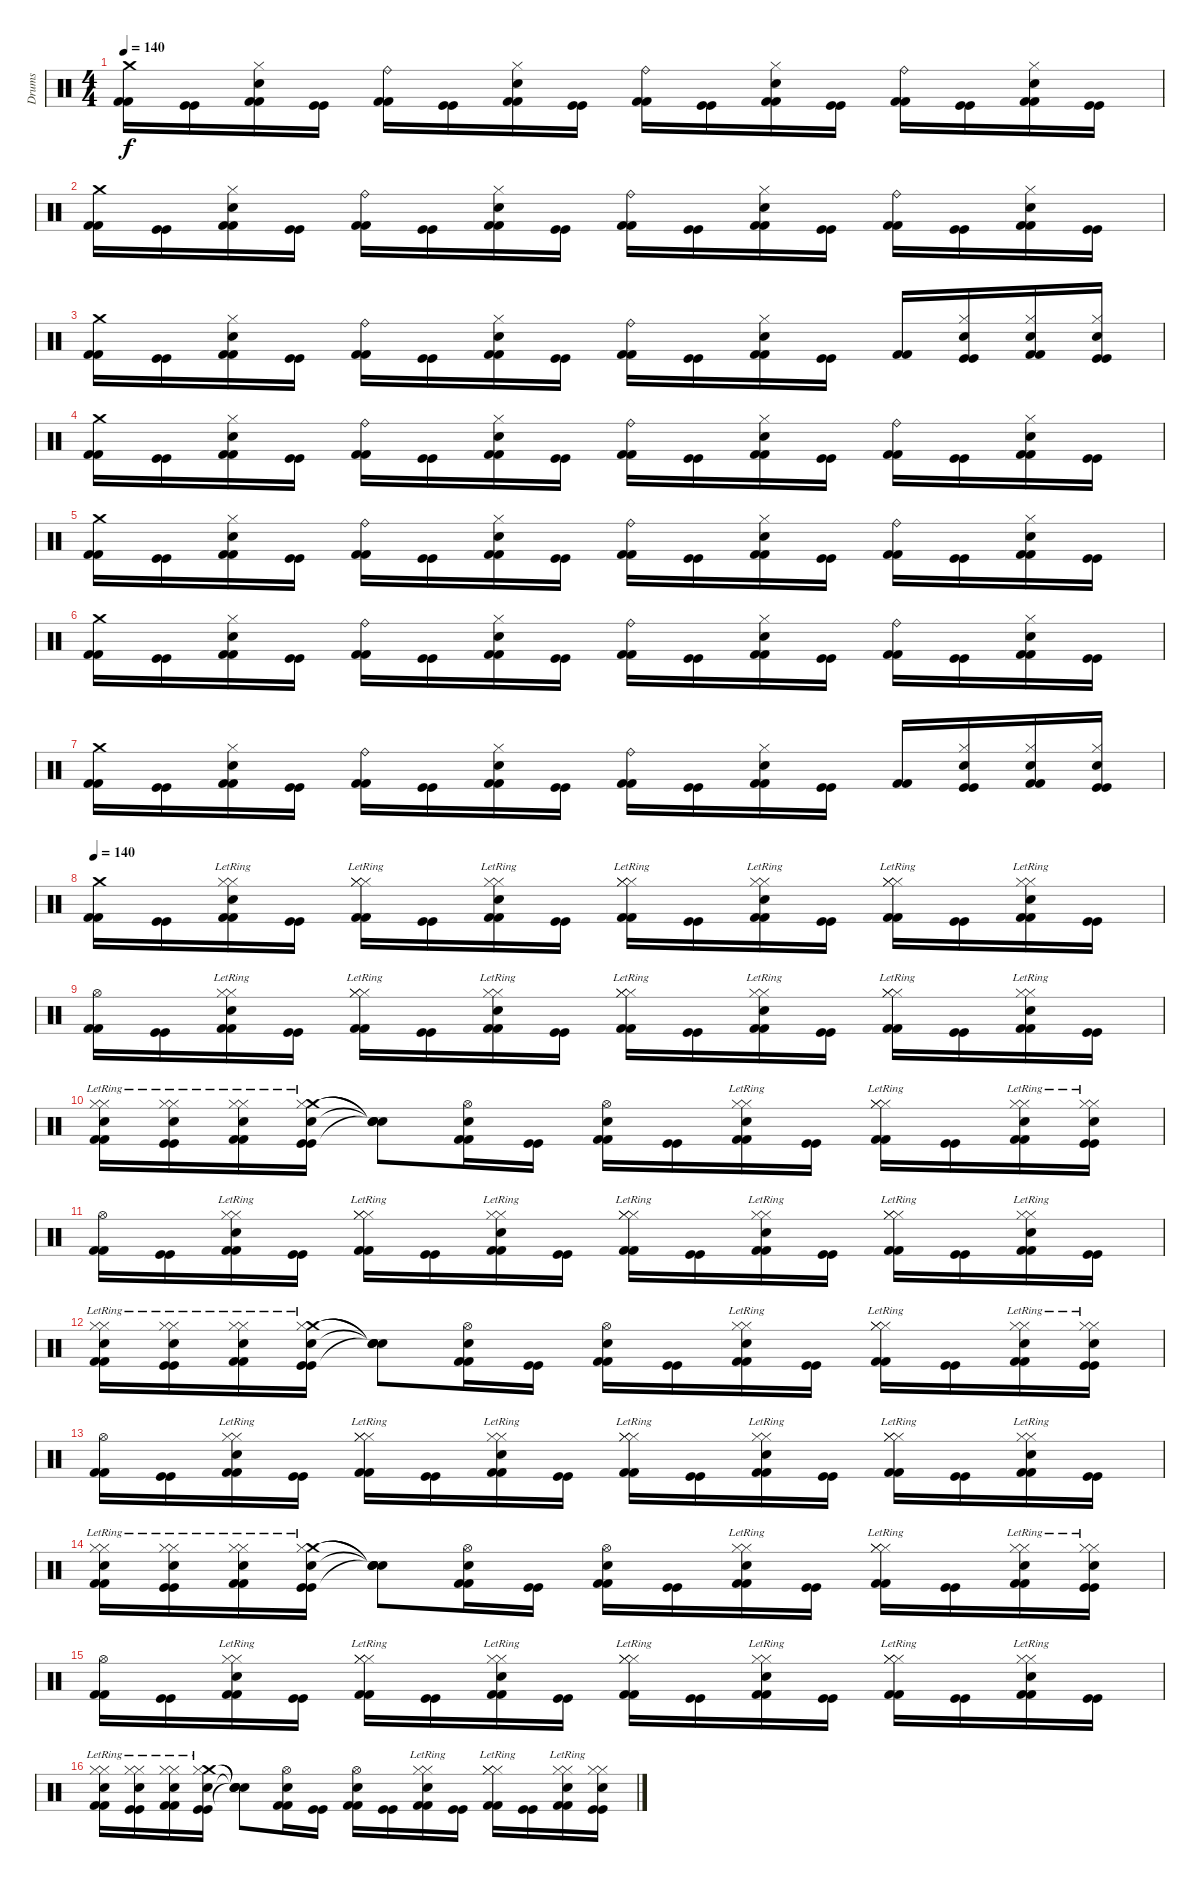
\track ("Drums" "Drums") {instrument percussion}
\staff {score}
\articulation defaults
\ts (4 4)
\tempo 140
\clef neutral
\ks c
("Crash medium (hit)" "Kick (hit) 2" "Kick (hit) 2").16{dy f} ("Kick (hit)" "Kick (hit)").16 ("Hi-Hat (closed)" "Snare (hit) 2" "Kick (hit) 2" "Kick (hit) 2").16 ("Kick (hit)" "Kick (hit)").16 ("Ride (bell)" "Kick (hit) 2" "Kick (hit) 2").16 ("Kick (hit)" "Kick (hit)").16 ("Hi-Hat (closed)" "Snare (hit) 2" "Kick (hit) 2" "Kick (hit) 2").16 ("Kick (hit)" "Kick (hit)").16 ("Ride (bell)" "Kick (hit) 2" "Kick (hit) 2").16 ("Kick (hit)" "Kick (hit)").16 ("Hi-Hat (closed)" "Snare (hit) 2" "Kick (hit) 2" "Kick (hit) 2").16 ("Kick (hit)" "Kick (hit)").16 ("Ride (bell)" "Kick (hit) 2" "Kick (hit) 2").16 ("Kick (hit)" "Kick (hit)").16 ("Hi-Hat (closed)" "Snare (hit) 2" "Kick (hit) 2" "Kick (hit) 2").16 ("Kick (hit)" "Kick (hit)").16 |
("Crash medium (hit)" "Kick (hit) 2" "Kick (hit) 2").16 ("Kick (hit)" "Kick (hit)").16 ("Hi-Hat (closed)" "Snare (hit) 2" "Kick (hit) 2" "Kick (hit) 2").16 ("Kick (hit)" "Kick (hit)").16 ("Ride (bell)" "Kick (hit) 2" "Kick (hit) 2").16 ("Kick (hit)" "Kick (hit)").16 ("Hi-Hat (closed)" "Snare (hit) 2" "Kick (hit) 2" "Kick (hit) 2").16 ("Kick (hit)" "Kick (hit)").16 ("Ride (bell)" "Kick (hit) 2" "Kick (hit) 2").16 ("Kick (hit)" "Kick (hit)").16 ("Hi-Hat (closed)" "Snare (hit) 2" "Kick (hit) 2" "Kick (hit) 2").16 ("Kick (hit)" "Kick (hit)").16 ("Ride (bell)" "Kick (hit) 2" "Kick (hit) 2").16 ("Kick (hit)" "Kick (hit)").16 ("Hi-Hat (closed)" "Snare (hit) 2" "Kick (hit) 2" "Kick (hit) 2").16 ("Kick (hit)" "Kick (hit)").16 |
("Crash medium (hit)" "Kick (hit) 2" "Kick (hit) 2").16 ("Kick (hit)" "Kick (hit)").16 ("Hi-Hat (closed)" "Snare (hit) 2" "Kick (hit) 2" "Kick (hit) 2").16 ("Kick (hit)" "Kick (hit)").16 ("Ride (bell)" "Kick (hit) 2" "Kick (hit) 2").16 ("Kick (hit)" "Kick (hit)").16 ("Hi-Hat (closed)" "Snare (hit) 2" "Kick (hit) 2" "Kick (hit) 2").16 ("Kick (hit)" "Kick (hit)").16 ("Ride (bell)" "Kick (hit) 2" "Kick (hit) 2").16 ("Kick (hit)" "Kick (hit)").16 ("Hi-Hat (closed)" "Snare (hit) 2" "Kick (hit) 2" "Kick (hit) 2").16 ("Kick (hit)" "Kick (hit)").16 ("Kick (hit) 2" "Kick (hit) 2").16 ("Hi-Hat (closed)" "Snare (hit) 2" "Kick (hit)" "Kick (hit)").16 ("Hi-Hat (closed)" "Snare (hit) 2" "Kick (hit) 2" "Kick (hit) 2").16 ("Hi-Hat (closed)" "Snare (hit) 2" "Kick (hit)" "Kick (hit)").16 |
("Crash medium (hit)" "Kick (hit) 2" "Kick (hit) 2").16 ("Kick (hit)" "Kick (hit)").16 ("Hi-Hat (closed)" "Snare (hit) 2" "Kick (hit) 2" "Kick (hit) 2").16 ("Kick (hit)" "Kick (hit)").16 ("Ride (bell)" "Kick (hit) 2" "Kick (hit) 2").16 ("Kick (hit)" "Kick (hit)").16 ("Hi-Hat (closed)" "Snare (hit) 2" "Kick (hit) 2" "Kick (hit) 2").16 ("Kick (hit)" "Kick (hit)").16 ("Ride (bell)" "Kick (hit) 2" "Kick (hit) 2").16 ("Kick (hit)" "Kick (hit)").16 ("Hi-Hat (closed)" "Snare (hit) 2" "Kick (hit) 2" "Kick (hit) 2").16 ("Kick (hit)" "Kick (hit)").16 ("Ride (bell)" "Kick (hit) 2" "Kick (hit) 2").16 ("Kick (hit)" "Kick (hit)").16 ("Hi-Hat (closed)" "Snare (hit) 2" "Kick (hit) 2" "Kick (hit) 2").16 ("Kick (hit)" "Kick (hit)").16 |
("Crash medium (hit)" "Kick (hit) 2" "Kick (hit) 2").16 ("Kick (hit)" "Kick (hit)").16 ("Hi-Hat (closed)" "Snare (hit) 2" "Kick (hit) 2" "Kick (hit) 2").16 ("Kick (hit)" "Kick (hit)").16 ("Ride (bell)" "Kick (hit) 2" "Kick (hit) 2").16 ("Kick (hit)" "Kick (hit)").16 ("Hi-Hat (closed)" "Snare (hit) 2" "Kick (hit) 2" "Kick (hit) 2").16 ("Kick (hit)" "Kick (hit)").16 ("Ride (bell)" "Kick (hit) 2" "Kick (hit) 2").16 ("Kick (hit)" "Kick (hit)").16 ("Hi-Hat (closed)" "Snare (hit) 2" "Kick (hit) 2" "Kick (hit) 2").16 ("Kick (hit)" "Kick (hit)").16 ("Ride (bell)" "Kick (hit) 2" "Kick (hit) 2").16 ("Kick (hit)" "Kick (hit)").16 ("Hi-Hat (closed)" "Snare (hit) 2" "Kick (hit) 2" "Kick (hit) 2").16 ("Kick (hit)" "Kick (hit)").16 |
("Crash medium (hit)" "Kick (hit) 2" "Kick (hit) 2").16 ("Kick (hit)" "Kick (hit)").16 ("Hi-Hat (closed)" "Snare (hit) 2" "Kick (hit) 2" "Kick (hit) 2").16 ("Kick (hit)" "Kick (hit)").16 ("Ride (bell)" "Kick (hit) 2" "Kick (hit) 2").16 ("Kick (hit)" "Kick (hit)").16 ("Hi-Hat (closed)" "Snare (hit) 2" "Kick (hit) 2" "Kick (hit) 2").16 ("Kick (hit)" "Kick (hit)").16 ("Ride (bell)" "Kick (hit) 2" "Kick (hit) 2").16 ("Kick (hit)" "Kick (hit)").16 ("Hi-Hat (closed)" "Snare (hit) 2" "Kick (hit) 2" "Kick (hit) 2").16 ("Kick (hit)" "Kick (hit)").16 ("Ride (bell)" "Kick (hit) 2" "Kick (hit) 2").16 ("Kick (hit)" "Kick (hit)").16 ("Hi-Hat (closed)" "Snare (hit) 2" "Kick (hit) 2" "Kick (hit) 2").16 ("Kick (hit)" "Kick (hit)").16 |
("Crash medium (hit)" "Kick (hit) 2" "Kick (hit) 2").16 ("Kick (hit)" "Kick (hit)").16 ("Hi-Hat (closed)" "Snare (hit) 2" "Kick (hit) 2" "Kick (hit) 2").16 ("Kick (hit)" "Kick (hit)").16 ("Ride (bell)" "Kick (hit) 2" "Kick (hit) 2").16 ("Kick (hit)" "Kick (hit)").16 ("Hi-Hat (closed)" "Snare (hit) 2" "Kick (hit) 2" "Kick (hit) 2").16 ("Kick (hit)" "Kick (hit)").16 ("Ride (bell)" "Kick (hit) 2" "Kick (hit) 2").16 ("Kick (hit)" "Kick (hit)").16 ("Hi-Hat (closed)" "Snare (hit) 2" "Kick (hit) 2" "Kick (hit) 2").16 ("Kick (hit)" "Kick (hit)").16 ("Kick (hit) 2" "Kick (hit) 2").16 ("Hi-Hat (closed)" "Snare (hit) 2" "Kick (hit)" "Kick (hit)").16 ("Hi-Hat (closed)" "Snare (hit) 2" "Kick (hit) 2" "Kick (hit) 2").16 ("Hi-Hat (closed)" "Snare (hit) 2" "Kick (hit)" "Kick (hit)").16 |
\tempo 140
("Crash medium (hit)" "Kick (hit) 2" "Kick (hit) 2").16 ("Kick (hit)" "Kick (hit)").16 ("Hi-Hat (closed)"{lr} "Hi-Hat (closed)"{lr} "Snare (hit) 2" "Kick (hit) 2" "Kick (hit) 2").16 ("Kick (hit)" "Kick (hit)").16 ("Hi-Hat (closed)"{lr} "Hi-Hat (closed)"{lr} "Hi-Hat (closed)"{lr} "Kick (hit) 2" "Kick (hit) 2").16 ("Kick (hit)" "Kick (hit)").16 ("Hi-Hat (closed)"{lr} "Hi-Hat (closed)"{lr} "Snare (hit) 2" "Kick (hit) 2" "Kick (hit) 2").16 ("Kick (hit)" "Kick (hit)").16 ("Hi-Hat (closed)"{lr} "Hi-Hat (closed)"{lr} "Hi-Hat (closed)"{lr} "Kick (hit) 2" "Kick (hit) 2").16 ("Kick (hit)" "Kick (hit)").16 ("Hi-Hat (closed)"{lr} "Hi-Hat (closed)"{lr} "Snare (hit) 2" "Kick (hit) 2" "Kick (hit) 2").16 ("Kick (hit)" "Kick (hit)").16 ("Hi-Hat (closed)"{lr} "Hi-Hat (closed)"{lr} "Hi-Hat (closed)"{lr} "Kick (hit) 2" "Kick (hit) 2").16 ("Kick (hit)" "Kick (hit)").16 ("Hi-Hat (closed)"{lr} "Hi-Hat (closed)"{lr} "Snare (hit) 2" "Kick (hit) 2" "Kick (hit) 2").16 ("Kick (hit)" "Kick (hit)").16 |
("Hi-Hat (open)" "Kick (hit) 2" "Kick (hit) 2").16 ("Kick (hit)" "Kick (hit)").16 ("Hi-Hat (closed)"{lr} "Hi-Hat (closed)"{lr} "Snare (hit) 2" "Kick (hit) 2" "Kick (hit) 2").16 ("Kick (hit)" "Kick (hit)").16 ("Hi-Hat (closed)"{lr} "Hi-Hat (closed)"{lr} "Hi-Hat (closed)"{lr} "Kick (hit) 2" "Kick (hit) 2").16 ("Kick (hit)" "Kick (hit)").16 ("Hi-Hat (closed)"{lr} "Hi-Hat (closed)"{lr} "Snare (hit) 2" "Kick (hit) 2" "Kick (hit) 2").16 ("Kick (hit)" "Kick (hit)").16 ("Hi-Hat (closed)"{lr} "Hi-Hat (closed)"{lr} "Hi-Hat (closed)"{lr} "Kick (hit) 2" "Kick (hit) 2").16 ("Kick (hit)" "Kick (hit)").16 ("Hi-Hat (closed)"{lr} "Hi-Hat (closed)"{lr} "Snare (hit) 2" "Kick (hit) 2" "Kick (hit) 2").16 ("Kick (hit)" "Kick (hit)").16 ("Hi-Hat (closed)"{lr} "Hi-Hat (closed)"{lr} "Hi-Hat (closed)"{lr} "Kick (hit) 2" "Kick (hit) 2").16 ("Kick (hit)" "Kick (hit)").16 ("Hi-Hat (closed)"{lr} "Hi-Hat (closed)"{lr} "Snare (hit) 2" "Kick (hit) 2" "Kick (hit) 2").16 ("Kick (hit)" "Kick (hit)").16 |
("Hi-Hat (closed)"{lr} "Hi-Hat (closed)"{lr} "Snare (hit) 2" "Kick (hit) 2" "Kick (hit) 2").16 ("Hi-Hat (closed)"{lr} "Hi-Hat (closed)"{lr} "Snare (hit) 2" "Kick (hit)" "Kick (hit)").16 ("Hi-Hat (closed)"{lr} "Hi-Hat (closed)"{lr} "Snare (hit) 2" "Kick (hit) 2" "Kick (hit) 2").16 ("Crash medium (hit)"{lr} "Hi-Hat (closed)"{lr} "Snare (hit) 2" "Kick (hit)" "Kick (hit)").16 ("Snare (hit)"{t} "Snare (hit)"{t} "Snare (hit)"{t} "Snare (hit)"{t}).8 ("Hi-Hat (open)" "Snare (hit) 2" "Kick (hit) 2" "Kick (hit) 2").16 ("Kick (hit)" "Kick (hit)").16 ("Hi-Hat (open)" "Snare (hit) 2" "Kick (hit) 2" "Kick (hit) 2").16 ("Kick (hit)" "Kick (hit)").16 ("Hi-Hat (closed)"{lr} "Hi-Hat (closed)"{lr} "Snare (hit) 2"{lr} "Kick (hit) 2" "Kick (hit) 2").16 ("Kick (hit)" "Kick (hit)").16 ("Hi-Hat (closed)"{lr} "Hi-Hat (closed)"{lr} "Hi-Hat (closed)"{lr} "Kick (hit) 2" "Kick (hit) 2").16 ("Kick (hit)" "Kick (hit)").16 ("Hi-Hat (closed)"{lr} "Hi-Hat (closed)"{lr} "Snare (hit) 2" "Kick (hit) 2" "Kick (hit) 2").16 ("Hi-Hat (closed)"{lr} "Hi-Hat (closed)"{lr} "Snare (hit) 2" "Kick (hit)" "Kick (hit)").16 |
("Hi-Hat (open)" "Kick (hit) 2" "Kick (hit) 2").16 ("Kick (hit)" "Kick (hit)").16 ("Hi-Hat (closed)"{lr} "Hi-Hat (closed)"{lr} "Snare (hit) 2" "Kick (hit) 2" "Kick (hit) 2").16 ("Kick (hit)" "Kick (hit)").16 ("Hi-Hat (closed)"{lr} "Hi-Hat (closed)"{lr} "Hi-Hat (closed)"{lr} "Kick (hit) 2" "Kick (hit) 2").16 ("Kick (hit)" "Kick (hit)").16 ("Hi-Hat (closed)"{lr} "Hi-Hat (closed)"{lr} "Snare (hit) 2" "Kick (hit) 2" "Kick (hit) 2").16 ("Kick (hit)" "Kick (hit)").16 ("Hi-Hat (closed)"{lr} "Hi-Hat (closed)"{lr} "Hi-Hat (closed)"{lr} "Kick (hit) 2" "Kick (hit) 2").16 ("Kick (hit)" "Kick (hit)").16 ("Hi-Hat (closed)"{lr} "Hi-Hat (closed)"{lr} "Snare (hit) 2" "Kick (hit) 2" "Kick (hit) 2").16 ("Kick (hit)" "Kick (hit)").16 ("Hi-Hat (closed)"{lr} "Hi-Hat (closed)"{lr} "Hi-Hat (closed)"{lr} "Kick (hit) 2" "Kick (hit) 2").16 ("Kick (hit)" "Kick (hit)").16 ("Hi-Hat (closed)"{lr} "Hi-Hat (closed)"{lr} "Snare (hit) 2" "Kick (hit) 2" "Kick (hit) 2").16 ("Kick (hit)" "Kick (hit)").16 |
("Hi-Hat (closed)"{lr} "Hi-Hat (closed)"{lr} "Snare (hit) 2" "Kick (hit) 2" "Kick (hit) 2").16 ("Hi-Hat (closed)"{lr} "Hi-Hat (closed)"{lr} "Snare (hit) 2" "Kick (hit)" "Kick (hit)").16 ("Hi-Hat (closed)"{lr} "Hi-Hat (closed)"{lr} "Snare (hit) 2" "Kick (hit) 2" "Kick (hit) 2").16 ("Crash medium (hit)"{lr} "Hi-Hat (closed)"{lr} "Snare (hit) 2" "Kick (hit)" "Kick (hit)").16 ("Snare (hit)"{t} "Snare (hit)"{t} "Snare (hit)"{t} "Snare (hit)"{t}).8 ("Hi-Hat (open)" "Snare (hit) 2" "Kick (hit) 2" "Kick (hit) 2").16 ("Kick (hit)" "Kick (hit)").16 ("Hi-Hat (open)" "Snare (hit) 2" "Kick (hit) 2" "Kick (hit) 2").16 ("Kick (hit)" "Kick (hit)").16 ("Hi-Hat (closed)"{lr} "Hi-Hat (closed)"{lr} "Snare (hit) 2"{lr} "Kick (hit) 2" "Kick (hit) 2").16 ("Kick (hit)" "Kick (hit)").16 ("Hi-Hat (closed)"{lr} "Hi-Hat (closed)"{lr} "Hi-Hat (closed)"{lr} "Kick (hit) 2" "Kick (hit) 2").16 ("Kick (hit)" "Kick (hit)").16 ("Hi-Hat (closed)"{lr} "Hi-Hat (closed)"{lr} "Snare (hit) 2" "Kick (hit) 2" "Kick (hit) 2").16 ("Hi-Hat (closed)"{lr} "Hi-Hat (closed)"{lr} "Snare (hit) 2" "Kick (hit)" "Kick (hit)").16 |
("Hi-Hat (open)" "Kick (hit) 2" "Kick (hit) 2").16 ("Kick (hit)" "Kick (hit)").16 ("Hi-Hat (closed)"{lr} "Hi-Hat (closed)"{lr} "Snare (hit) 2" "Kick (hit) 2" "Kick (hit) 2").16 ("Kick (hit)" "Kick (hit)").16 ("Hi-Hat (closed)"{lr} "Hi-Hat (closed)"{lr} "Hi-Hat (closed)"{lr} "Kick (hit) 2" "Kick (hit) 2").16 ("Kick (hit)" "Kick (hit)").16 ("Hi-Hat (closed)"{lr} "Hi-Hat (closed)"{lr} "Snare (hit) 2" "Kick (hit) 2" "Kick (hit) 2").16 ("Kick (hit)" "Kick (hit)").16 ("Hi-Hat (closed)"{lr} "Hi-Hat (closed)"{lr} "Hi-Hat (closed)"{lr} "Kick (hit) 2" "Kick (hit) 2").16 ("Kick (hit)" "Kick (hit)").16 ("Hi-Hat (closed)"{lr} "Hi-Hat (closed)"{lr} "Snare (hit) 2" "Kick (hit) 2" "Kick (hit) 2").16 ("Kick (hit)" "Kick (hit)").16 ("Hi-Hat (closed)"{lr} "Hi-Hat (closed)"{lr} "Hi-Hat (closed)"{lr} "Kick (hit) 2" "Kick (hit) 2").16 ("Kick (hit)" "Kick (hit)").16 ("Hi-Hat (closed)"{lr} "Hi-Hat (closed)"{lr} "Snare (hit) 2" "Kick (hit) 2" "Kick (hit) 2").16 ("Kick (hit)" "Kick (hit)").16 |
("Hi-Hat (closed)"{lr} "Hi-Hat (closed)"{lr} "Snare (hit) 2" "Kick (hit) 2" "Kick (hit) 2").16 ("Hi-Hat (closed)"{lr} "Hi-Hat (closed)"{lr} "Snare (hit) 2" "Kick (hit)" "Kick (hit)").16 ("Hi-Hat (closed)"{lr} "Hi-Hat (closed)"{lr} "Snare (hit) 2" "Kick (hit) 2" "Kick (hit) 2").16 ("Crash medium (hit)"{lr} "Hi-Hat (closed)"{lr} "Snare (hit) 2" "Kick (hit)" "Kick (hit)").16 ("Snare (hit)"{t} "Snare (hit)"{t} "Snare (hit)"{t} "Snare (hit)"{t}).8 ("Hi-Hat (open)" "Snare (hit) 2" "Kick (hit) 2" "Kick (hit) 2").16 ("Kick (hit)" "Kick (hit)").16 ("Hi-Hat (open)" "Snare (hit) 2" "Kick (hit) 2" "Kick (hit) 2").16 ("Kick (hit)" "Kick (hit)").16 ("Hi-Hat (closed)"{lr} "Hi-Hat (closed)"{lr} "Snare (hit) 2"{lr} "Kick (hit) 2" "Kick (hit) 2").16 ("Kick (hit)" "Kick (hit)").16 ("Hi-Hat (closed)"{lr} "Hi-Hat (closed)"{lr} "Hi-Hat (closed)"{lr} "Kick (hit) 2" "Kick (hit) 2").16 ("Kick (hit)" "Kick (hit)").16 ("Hi-Hat (closed)"{lr} "Hi-Hat (closed)"{lr} "Snare (hit) 2" "Kick (hit) 2" "Kick (hit) 2").16 ("Hi-Hat (closed)"{lr} "Hi-Hat (closed)"{lr} "Snare (hit) 2" "Kick (hit)" "Kick (hit)").16 |
("Hi-Hat (open)" "Kick (hit) 2" "Kick (hit) 2").16 ("Kick (hit)" "Kick (hit)").16 ("Hi-Hat (closed)"{lr} "Hi-Hat (closed)"{lr} "Snare (hit) 2" "Kick (hit) 2" "Kick (hit) 2").16 ("Kick (hit)" "Kick (hit)").16 ("Hi-Hat (closed)"{lr} "Hi-Hat (closed)"{lr} "Hi-Hat (closed)"{lr} "Kick (hit) 2" "Kick (hit) 2").16 ("Kick (hit)" "Kick (hit)").16 ("Hi-Hat (closed)"{lr} "Hi-Hat (closed)"{lr} "Snare (hit) 2" "Kick (hit) 2" "Kick (hit) 2").16 ("Kick (hit)" "Kick (hit)").16 ("Hi-Hat (closed)"{lr} "Hi-Hat (closed)"{lr} "Hi-Hat (closed)"{lr} "Kick (hit) 2" "Kick (hit) 2").16 ("Kick (hit)" "Kick (hit)").16 ("Hi-Hat (closed)"{lr} "Hi-Hat (closed)"{lr} "Snare (hit) 2" "Kick (hit) 2" "Kick (hit) 2").16 ("Kick (hit)" "Kick (hit)").16 ("Hi-Hat (closed)"{lr} "Hi-Hat (closed)"{lr} "Hi-Hat (closed)"{lr} "Kick (hit) 2" "Kick (hit) 2").16 ("Kick (hit)" "Kick (hit)").16 ("Hi-Hat (closed)"{lr} "Hi-Hat (closed)"{lr} "Snare (hit) 2" "Kick (hit) 2" "Kick (hit) 2").16 ("Kick (hit)" "Kick (hit)").16 |
("Hi-Hat (closed)"{lr} "Hi-Hat (closed)"{lr} "Snare (hit) 2" "Kick (hit) 2" "Kick (hit) 2").16 ("Hi-Hat (closed)"{lr} "Hi-Hat (closed)"{lr} "Snare (hit) 2" "Kick (hit)" "Kick (hit)").16 ("Hi-Hat (closed)"{lr} "Hi-Hat (closed)"{lr} "Snare (hit) 2" "Kick (hit) 2" "Kick (hit) 2").16 ("Crash medium (hit)"{lr} "Hi-Hat (closed)"{lr} "Snare (hit) 2" "Kick (hit)" "Kick (hit)").16 ("Snare (hit)"{t} "Snare (hit)"{t} "Snare (hit)"{t} "Snare (hit)"{t}).8 ("Hi-Hat (open)" "Snare (hit) 2" "Kick (hit) 2" "Kick (hit) 2").16 ("Kick (hit)" "Kick (hit)").16 ("Hi-Hat (open)" "Snare (hit) 2" "Kick (hit) 2" "Kick (hit) 2").16 ("Kick (hit)" "Kick (hit)").16 ("Hi-Hat (closed)"{lr} "Hi-Hat (closed)"{lr} "Snare (hit) 2"{lr} "Kick (hit) 2" "Kick (hit) 2").16 ("Kick (hit)" "Kick (hit)").16 ("Hi-Hat (closed)"{lr} "Hi-Hat (closed)"{lr} "Hi-Hat (closed)"{lr} "Kick (hit) 2" "Kick (hit) 2").16 ("Kick (hit)" "Kick (hit)").16 ("Hi-Hat (closed)"{lr} "Hi-Hat (closed)"{lr} "Snare (hit) 2" "Kick (hit) 2" "Kick (hit) 2").16 ("Hi-Hat (closed)"{lr} "Hi-Hat (closed)"{lr} "Snare (hit) 2" "Kick (hit)" "Kick (hit)").16
